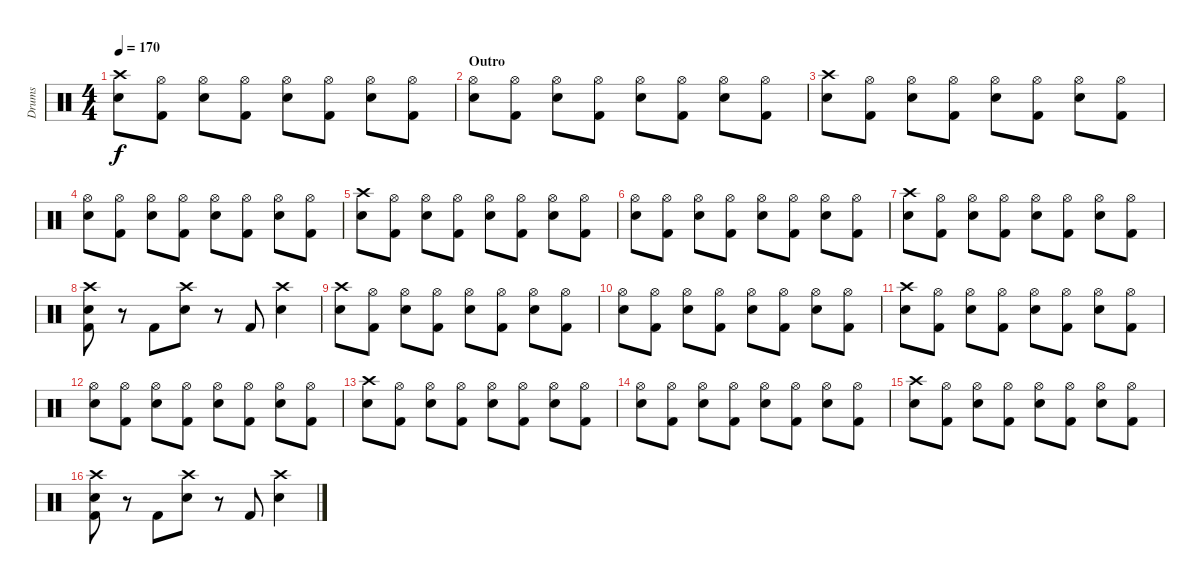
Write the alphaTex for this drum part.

\track ("Drums" "Drums") {instrument percussion}
\staff {score}
\articulation defaults
\ts (4 4)
\tempo 170
\clef neutral
\ks c
("Crash high (hit)" "Electric Snare (hit)").8{dy f} ("Hi-Hat (open)" "Kick (hit) 2").8 ("Hi-Hat (open)" "Electric Snare (hit)").8 ("Hi-Hat (open)" "Kick (hit) 2").8 ("Hi-Hat (open)" "Electric Snare (hit)").8 ("Hi-Hat (open)" "Kick (hit) 2").8 ("Hi-Hat (open)" "Electric Snare (hit)").8 ("Hi-Hat (open)" "Kick (hit) 2").8 |
\section ("" "Outro")
("Hi-Hat (open)" "Electric Snare (hit)").8 ("Hi-Hat (open)" "Kick (hit) 2").8 ("Hi-Hat (open)" "Electric Snare (hit)").8 ("Hi-Hat (open)" "Kick (hit) 2").8 ("Hi-Hat (open)" "Electric Snare (hit)").8 ("Hi-Hat (open)" "Kick (hit) 2").8 ("Hi-Hat (open)" "Electric Snare (hit)").8 ("Hi-Hat (open)" "Kick (hit) 2").8 |
("Crash high (hit)" "Electric Snare (hit)").8 ("Hi-Hat (open)" "Kick (hit) 2").8 ("Hi-Hat (open)" "Electric Snare (hit)").8 ("Hi-Hat (open)" "Kick (hit) 2").8 ("Hi-Hat (open)" "Electric Snare (hit)").8 ("Hi-Hat (open)" "Kick (hit) 2").8 ("Hi-Hat (open)" "Electric Snare (hit)").8 ("Hi-Hat (open)" "Kick (hit) 2").8 |
("Hi-Hat (open)" "Electric Snare (hit)").8 ("Hi-Hat (open)" "Kick (hit) 2").8 ("Hi-Hat (open)" "Electric Snare (hit)").8 ("Hi-Hat (open)" "Kick (hit) 2").8 ("Hi-Hat (open)" "Electric Snare (hit)").8 ("Hi-Hat (open)" "Kick (hit) 2").8 ("Hi-Hat (open)" "Electric Snare (hit)").8 ("Hi-Hat (open)" "Kick (hit) 2").8 |
("Crash high (hit)" "Electric Snare (hit)").8 ("Hi-Hat (open)" "Kick (hit) 2").8 ("Hi-Hat (open)" "Electric Snare (hit)").8 ("Hi-Hat (open)" "Kick (hit) 2").8 ("Hi-Hat (open)" "Electric Snare (hit)").8 ("Hi-Hat (open)" "Kick (hit) 2").8 ("Hi-Hat (open)" "Electric Snare (hit)").8 ("Hi-Hat (open)" "Kick (hit) 2").8 |
("Hi-Hat (open)" "Electric Snare (hit)").8 ("Hi-Hat (open)" "Kick (hit) 2").8 ("Hi-Hat (open)" "Electric Snare (hit)").8 ("Hi-Hat (open)" "Kick (hit) 2").8 ("Hi-Hat (open)" "Electric Snare (hit)").8 ("Hi-Hat (open)" "Kick (hit) 2").8 ("Hi-Hat (open)" "Electric Snare (hit)").8 ("Hi-Hat (open)" "Kick (hit) 2").8 |
("Crash high (hit)" "Electric Snare (hit)").8 ("Hi-Hat (open)" "Kick (hit) 2").8 ("Hi-Hat (open)" "Electric Snare (hit)").8 ("Hi-Hat (open)" "Kick (hit) 2").8 ("Hi-Hat (open)" "Electric Snare (hit)").8 ("Hi-Hat (open)" "Kick (hit) 2").8 ("Hi-Hat (open)" "Electric Snare (hit)").8 ("Hi-Hat (open)" "Kick (hit) 2").8 |
("Crash high (hit)" "Electric Snare (hit)" "Kick (hit) 2").8 r.8 "Kick (hit) 2".8 ("Crash high (hit)" "Electric Snare (hit)").8 r.8 "Kick (hit) 2".8 ("Crash high (hit)" "Electric Snare (hit)").4 |
("Crash high (hit)" "Electric Snare (hit)").8 ("Hi-Hat (open)" "Kick (hit) 2").8 ("Hi-Hat (open)" "Electric Snare (hit)").8 ("Hi-Hat (open)" "Kick (hit) 2").8 ("Hi-Hat (open)" "Electric Snare (hit)").8 ("Hi-Hat (open)" "Kick (hit) 2").8 ("Hi-Hat (open)" "Electric Snare (hit)").8 ("Hi-Hat (open)" "Kick (hit) 2").8 |
("Hi-Hat (open)" "Electric Snare (hit)").8 ("Hi-Hat (open)" "Kick (hit) 2").8 ("Hi-Hat (open)" "Electric Snare (hit)").8 ("Hi-Hat (open)" "Kick (hit) 2").8 ("Hi-Hat (open)" "Electric Snare (hit)").8 ("Hi-Hat (open)" "Kick (hit) 2").8 ("Hi-Hat (open)" "Electric Snare (hit)").8 ("Hi-Hat (open)" "Kick (hit) 2").8 |
("Crash high (hit)" "Electric Snare (hit)").8 ("Hi-Hat (open)" "Kick (hit) 2").8 ("Hi-Hat (open)" "Electric Snare (hit)").8 ("Hi-Hat (open)" "Kick (hit) 2").8 ("Hi-Hat (open)" "Electric Snare (hit)").8 ("Hi-Hat (open)" "Kick (hit) 2").8 ("Hi-Hat (open)" "Electric Snare (hit)").8 ("Hi-Hat (open)" "Kick (hit) 2").8 |
("Hi-Hat (open)" "Electric Snare (hit)").8 ("Hi-Hat (open)" "Kick (hit) 2").8 ("Hi-Hat (open)" "Electric Snare (hit)").8 ("Hi-Hat (open)" "Kick (hit) 2").8 ("Hi-Hat (open)" "Electric Snare (hit)").8 ("Hi-Hat (open)" "Kick (hit) 2").8 ("Hi-Hat (open)" "Electric Snare (hit)").8 ("Hi-Hat (open)" "Kick (hit) 2").8 |
("Crash high (hit)" "Electric Snare (hit)").8 ("Hi-Hat (open)" "Kick (hit) 2").8 ("Hi-Hat (open)" "Electric Snare (hit)").8 ("Hi-Hat (open)" "Kick (hit) 2").8 ("Hi-Hat (open)" "Electric Snare (hit)").8 ("Hi-Hat (open)" "Kick (hit) 2").8 ("Hi-Hat (open)" "Electric Snare (hit)").8 ("Hi-Hat (open)" "Kick (hit) 2").8 |
("Hi-Hat (open)" "Electric Snare (hit)").8 ("Hi-Hat (open)" "Kick (hit) 2").8 ("Hi-Hat (open)" "Electric Snare (hit)").8 ("Hi-Hat (open)" "Kick (hit) 2").8 ("Hi-Hat (open)" "Electric Snare (hit)").8 ("Hi-Hat (open)" "Kick (hit) 2").8 ("Hi-Hat (open)" "Electric Snare (hit)").8 ("Hi-Hat (open)" "Kick (hit) 2").8 |
("Crash high (hit)" "Electric Snare (hit)").8 ("Hi-Hat (open)" "Kick (hit) 2").8 ("Hi-Hat (open)" "Electric Snare (hit)").8 ("Hi-Hat (open)" "Kick (hit) 2").8 ("Hi-Hat (open)" "Electric Snare (hit)").8 ("Hi-Hat (open)" "Kick (hit) 2").8 ("Hi-Hat (open)" "Electric Snare (hit)").8 ("Hi-Hat (open)" "Kick (hit) 2").8 |
("Crash high (hit)" "Electric Snare (hit)" "Kick (hit) 2").8 r.8 "Kick (hit) 2".8 ("Crash high (hit)" "Electric Snare (hit)").8 r.8 "Kick (hit) 2".8 ("Crash high (hit)" "Electric Snare (hit)").4
